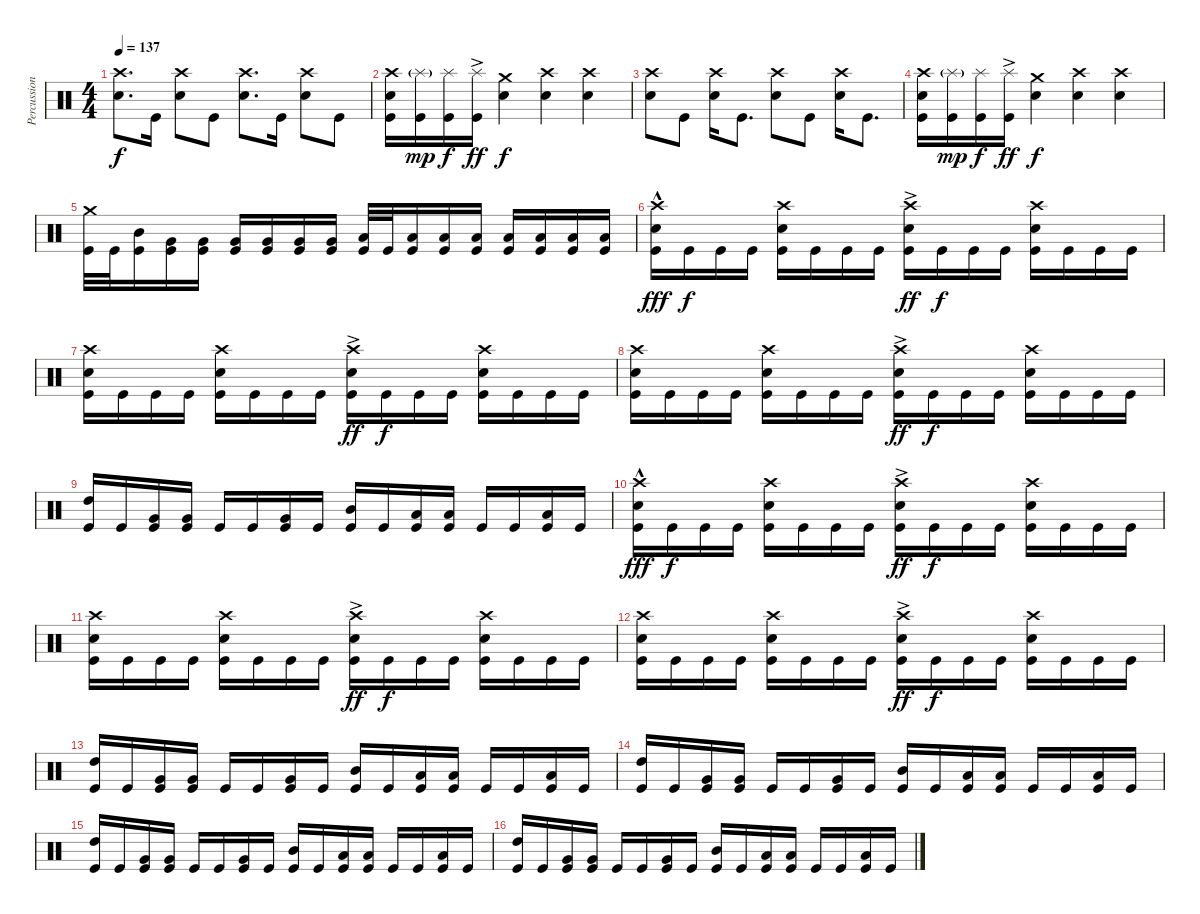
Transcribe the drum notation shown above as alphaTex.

\track ("Percussion" "Percussion") {instrument percussion}
\staff {score}
\articulation defaults
\ts (4 4)
\tempo 137
\clef neutral
\ks c
("Crash high (hit)" "Snare (hit) 2").8{d dy f} "Kick (hit)".16 ("Crash high (hit)" "Snare (hit) 2").8 "Kick (hit)".8 ("Crash high (hit)" "Snare (hit) 2").8{d} "Kick (hit)".16 ("Crash high (hit)" "Snare (hit) 2").8 "Kick (hit)".8 |
("Crash high (hit)" "Snare (hit) 2" "Kick (hit)").16 ("Splash (hit)"{g} "Kick (hit)").16{dy mp} ("Splash (hit)" "Kick (hit)").16{dy f} ("Splash (hit)"{ac} "Kick (hit)").16{dy ff} ("Crash medium (hit)" "Snare (hit) 2").4{dy f} ("Crash high (hit)" "Snare (hit) 2").4 ("Crash high (hit)" "Snare (hit) 2").4 |
("Crash high (hit)" "Snare (hit) 2").8 "Kick (hit)".8 ("Crash high (hit)" "Snare (hit) 2").16 "Kick (hit)".8{d} ("Crash high (hit)" "Snare (hit) 2").8 "Kick (hit)".8 ("Crash high (hit)" "Snare (hit) 2").16 "Kick (hit)".8{d} |
("Crash high (hit)" "Snare (hit) 2" "Kick (hit)").16 ("Splash (hit)"{g} "Kick (hit)").16{dy mp} ("Splash (hit)" "Kick (hit)").16{dy f} ("Splash (hit)"{ac} "Kick (hit)").16{dy ff} ("Crash medium (hit)" "Snare (hit) 2").4{dy f} ("Crash high (hit)" "Snare (hit) 2").4 ("Crash high (hit)" "Snare (hit) 2").4 |
("Crash medium (hit)" "Kick (hit)").32 "Kick (hit)".32 ("Mid Tom (hit)" "Kick (hit)").16 ("Very Low Tom (hit)" "Kick (hit)").16 ("Very Low Tom (hit)" "Kick (hit)").16 ("Very Low Tom (hit)" "Kick (hit)").16 ("Very Low Tom (hit)" "Kick (hit)").16 ("Very Low Tom (hit)" "Kick (hit)").16 ("Very Low Tom (hit)" "Kick (hit)").16 ("Low Tom (hit)" "Kick (hit)").32 "Kick (hit)".32 ("Low Tom (hit)" "Kick (hit)").16 ("Low Floor Tom (hit)" "Kick (hit)").16 ("Low Floor Tom (hit)" "Kick (hit)").16 ("Low Floor Tom (hit)" "Kick (hit)").16 ("Low Floor Tom (hit)" "Kick (hit)").16 ("Low Floor Tom (hit)" "Kick (hit)").16 ("Low Floor Tom (hit)" "Kick (hit)").16 |
("Crash high (hit)"{hac} "Snare (hit) 2" "Kick (hit)").16{dy fff} "Kick (hit)".16{dy f} "Kick (hit)".16 "Kick (hit)".16 ("Crash high (hit)" "Snare (hit) 2" "Kick (hit)").16 "Kick (hit)".16 "Kick (hit)".16 "Kick (hit)".16 ("Crash high (hit)" "Snare (hit) 2"{ac} "Kick (hit)").16{dy ff} "Kick (hit)".16{dy f} "Kick (hit)".16 "Kick (hit)".16 ("Crash high (hit)" "Snare (hit) 2" "Kick (hit)").16 "Kick (hit)".16 "Kick (hit)".16 "Kick (hit)".16 |
("Crash high (hit)" "Snare (hit) 2" "Kick (hit)").16 "Kick (hit)".16 "Kick (hit)".16 "Kick (hit)".16 ("Crash high (hit)" "Snare (hit) 2" "Kick (hit)").16 "Kick (hit)".16 "Kick (hit)".16 "Kick (hit)".16 ("Crash high (hit)" "Snare (hit) 2"{ac} "Kick (hit)").16{dy ff} "Kick (hit)".16{dy f} "Kick (hit)".16 "Kick (hit)".16 ("Crash high (hit)" "Snare (hit) 2" "Kick (hit)").16 "Kick (hit)".16 "Kick (hit)".16 "Kick (hit)".16 |
("Crash high (hit)" "Snare (hit) 2" "Kick (hit)").16 "Kick (hit)".16 "Kick (hit)".16 "Kick (hit)".16 ("Crash high (hit)" "Snare (hit) 2" "Kick (hit)").16 "Kick (hit)".16 "Kick (hit)".16 "Kick (hit)".16 ("Crash high (hit)" "Snare (hit) 2"{ac} "Kick (hit)").16{dy ff} "Kick (hit)".16{dy f} "Kick (hit)".16 "Kick (hit)".16 ("Crash high (hit)" "Snare (hit) 2" "Kick (hit)").16 "Kick (hit)".16 "Kick (hit)".16 "Kick (hit)".16 |
("High Tom (hit)" "Kick (hit)").16 "Kick (hit)".16 ("Very Low Tom (hit)" "Kick (hit)").16 ("Very Low Tom (hit)" "Kick (hit)").16 "Kick (hit)".16 "Kick (hit)".16 ("Very Low Tom (hit)" "Kick (hit)").16 "Kick (hit)".16 ("Mid Tom (hit)" "Kick (hit)").16 "Kick (hit)".16 ("Low Floor Tom (hit)" "Kick (hit)").16 ("Low Floor Tom (hit)" "Kick (hit)").16 "Kick (hit)".16 "Kick (hit)".16 ("Low Floor Tom (hit)" "Kick (hit)").16 "Kick (hit)".16 |
("Crash high (hit)"{hac} "Snare (hit) 2" "Kick (hit)").16{dy fff} "Kick (hit)".16{dy f} "Kick (hit)".16 "Kick (hit)".16 ("Crash high (hit)" "Snare (hit) 2" "Kick (hit)").16 "Kick (hit)".16 "Kick (hit)".16 "Kick (hit)".16 ("Crash high (hit)" "Snare (hit) 2"{ac} "Kick (hit)").16{dy ff} "Kick (hit)".16{dy f} "Kick (hit)".16 "Kick (hit)".16 ("Crash high (hit)" "Snare (hit) 2" "Kick (hit)").16 "Kick (hit)".16 "Kick (hit)".16 "Kick (hit)".16 |
("Crash high (hit)" "Snare (hit) 2" "Kick (hit)").16 "Kick (hit)".16 "Kick (hit)".16 "Kick (hit)".16 ("Crash high (hit)" "Snare (hit) 2" "Kick (hit)").16 "Kick (hit)".16 "Kick (hit)".16 "Kick (hit)".16 ("Crash high (hit)" "Snare (hit) 2"{ac} "Kick (hit)").16{dy ff} "Kick (hit)".16{dy f} "Kick (hit)".16 "Kick (hit)".16 ("Crash high (hit)" "Snare (hit) 2" "Kick (hit)").16 "Kick (hit)".16 "Kick (hit)".16 "Kick (hit)".16 |
("Crash high (hit)" "Snare (hit) 2" "Kick (hit)").16 "Kick (hit)".16 "Kick (hit)".16 "Kick (hit)".16 ("Crash high (hit)" "Snare (hit) 2" "Kick (hit)").16 "Kick (hit)".16 "Kick (hit)".16 "Kick (hit)".16 ("Crash high (hit)" "Snare (hit) 2"{ac} "Kick (hit)").16{dy ff} "Kick (hit)".16{dy f} "Kick (hit)".16 "Kick (hit)".16 ("Crash high (hit)" "Snare (hit) 2" "Kick (hit)").16 "Kick (hit)".16 "Kick (hit)".16 "Kick (hit)".16 |
("High Tom (hit)" "Kick (hit)").16 "Kick (hit)".16 ("Very Low Tom (hit)" "Kick (hit)").16 ("Very Low Tom (hit)" "Kick (hit)").16 "Kick (hit)".16 "Kick (hit)".16 ("Very Low Tom (hit)" "Kick (hit)").16 "Kick (hit)".16 ("Mid Tom (hit)" "Kick (hit)").16 "Kick (hit)".16 ("Low Floor Tom (hit)" "Kick (hit)").16 ("Low Floor Tom (hit)" "Kick (hit)").16 "Kick (hit)".16 "Kick (hit)".16 ("Low Floor Tom (hit)" "Kick (hit)").16 "Kick (hit)".16 |
("High Tom (hit)" "Kick (hit)").16 "Kick (hit)".16 ("Very Low Tom (hit)" "Kick (hit)").16 ("Very Low Tom (hit)" "Kick (hit)").16 "Kick (hit)".16 "Kick (hit)".16 ("Very Low Tom (hit)" "Kick (hit)").16 "Kick (hit)".16 ("Mid Tom (hit)" "Kick (hit)").16 "Kick (hit)".16 ("Low Floor Tom (hit)" "Kick (hit)").16 ("Low Floor Tom (hit)" "Kick (hit)").16 "Kick (hit)".16 "Kick (hit)".16 ("Low Floor Tom (hit)" "Kick (hit)").16 "Kick (hit)".16 |
("High Tom (hit)" "Kick (hit)").16 "Kick (hit)".16 ("Very Low Tom (hit)" "Kick (hit)").16 ("Very Low Tom (hit)" "Kick (hit)").16 "Kick (hit)".16 "Kick (hit)".16 ("Very Low Tom (hit)" "Kick (hit)").16 "Kick (hit)".16 ("Mid Tom (hit)" "Kick (hit)").16 "Kick (hit)".16 ("Low Floor Tom (hit)" "Kick (hit)").16 ("Low Floor Tom (hit)" "Kick (hit)").16 "Kick (hit)".16 "Kick (hit)".16 ("Low Floor Tom (hit)" "Kick (hit)").16 "Kick (hit)".16 |
("High Tom (hit)" "Kick (hit)").16 "Kick (hit)".16 ("Very Low Tom (hit)" "Kick (hit)").16 ("Very Low Tom (hit)" "Kick (hit)").16 "Kick (hit)".16 "Kick (hit)".16 ("Very Low Tom (hit)" "Kick (hit)").16 "Kick (hit)".16 ("Mid Tom (hit)" "Kick (hit)").16 "Kick (hit)".16 ("Low Floor Tom (hit)" "Kick (hit)").16 ("Low Floor Tom (hit)" "Kick (hit)").16 "Kick (hit)".16 "Kick (hit)".16 ("Low Floor Tom (hit)" "Kick (hit)").16 "Kick (hit)".16
